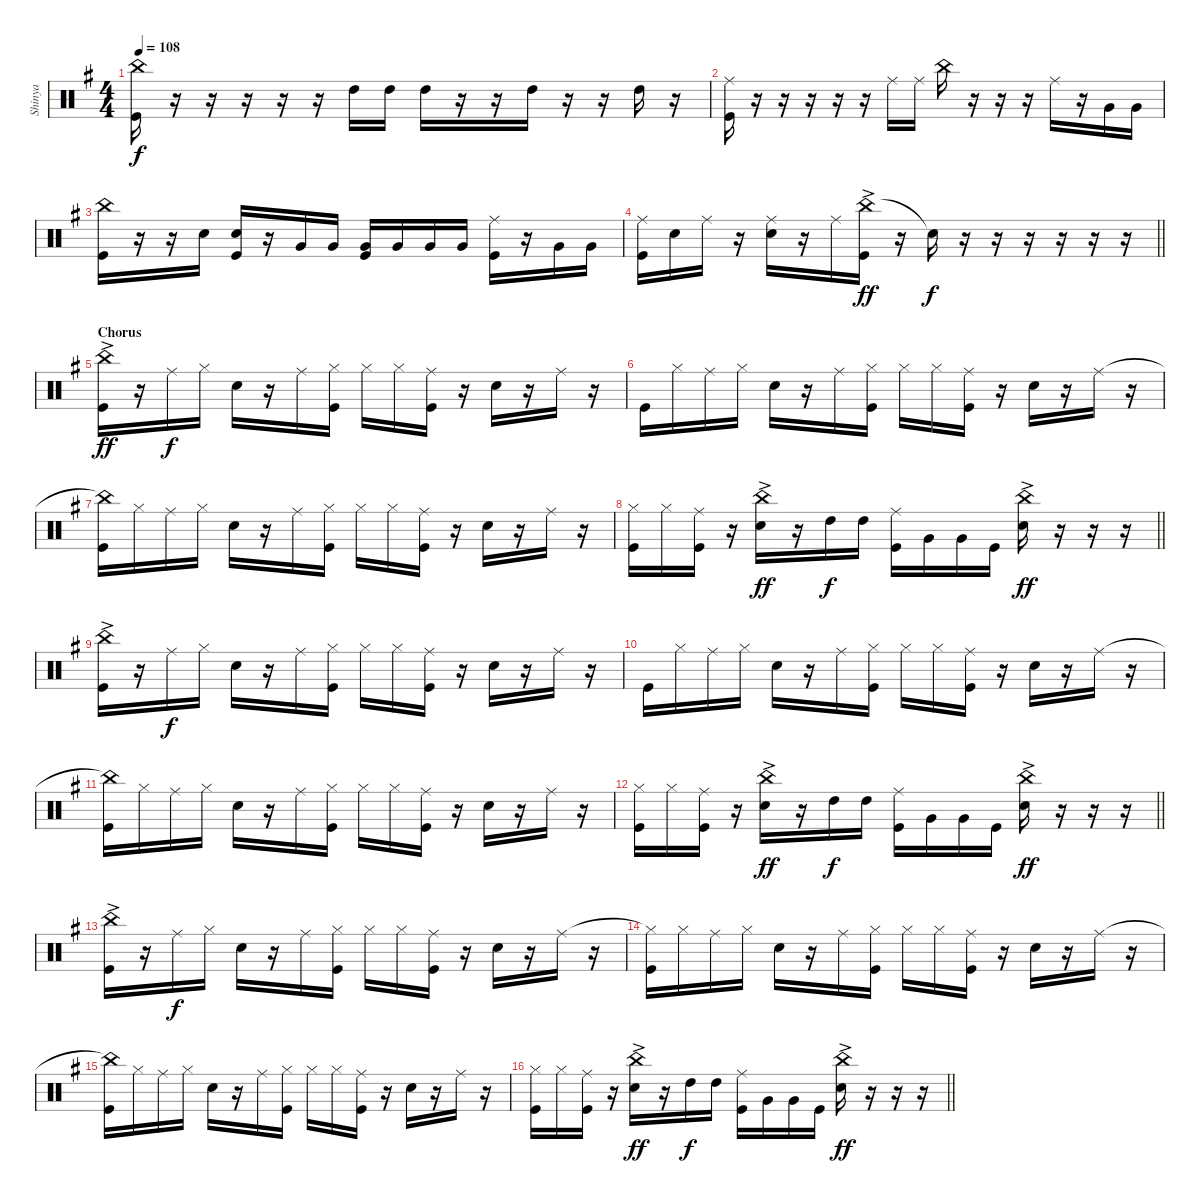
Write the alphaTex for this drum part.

\track ("Shinya" "Shinya") {instrument percussion}
\staff {score}
\articulation defaults
\ts (4 4)
\tempo 108
\clef neutral
\ks g
("China (hit)" "Kick (hit)").16{dy f} r.16 r.16 r.16 r.16 r.16 "High Tom (hit)".16 "High Tom (hit)".16 "High Tom (hit)".16 r.16 r.16 "High Tom (hit)".16 r.16 r.16 "High Tom (hit)".16 r.16 |
("Ride (middle)" "Kick (hit)").16 r.16 r.16 r.16 r.16 r.16 "Ride (middle)".16 "Ride (middle)".16 "China (hit)".16 r.16 r.16 r.16 "Ride (middle)".16 r.16 "Very Low Tom (hit)".16 "Very Low Tom (hit)".16 |
("China (hit)" "Kick (hit)").16 r.16 r.16 "Electric Snare (hit)".16 ("Electric Snare (hit)" "Kick (hit)").16 r.16 "Very Low Tom (hit)".16 "Very Low Tom (hit)".16 ("Very Low Tom (hit)" "Kick (hit)").16 "Very Low Tom (hit)".16 "Very Low Tom (hit)".16 "Very Low Tom (hit)".16 ("Ride (middle)" "Kick (hit)").16 r.16 "Very Low Tom (hit)".16 "Very Low Tom (hit)".16 |
\barLineRight lightlight
("Ride (middle)" "Kick (hit)").16 "Electric Snare (hit)".16 "Ride (middle)".16 r.16 ("Ride (middle)" "Electric Snare (hit)").16 r.16 "Ride (middle)".16 ("China (hit)"{ac} "Kick (hit)").16{dy ff} r.16 "Snare (hit)"{t}.16{dy f} r.16 r.16 r.16 r.16 r.16 r.16 |
\section ("" "Chorus")
("China (hit)"{ac} "Kick (hit)").16{dy ff} r.16 "Ride (middle)".16{dy f} "Hi-Hat (closed)".16 "Electric Snare (hit)".16 r.16 "Ride (middle)".16 ("Hi-Hat (closed)" "Kick (hit)").16 "Hi-Hat (closed)".16 "Hi-Hat (closed)".16 ("Ride (middle)" "Kick (hit)").16 r.16 "Electric Snare (hit)".16 r.16 "Ride (middle)".16 r.16 |
"Kick (hit)".16 "Hi-Hat (closed)".16 "Ride (middle)".16 "Hi-Hat (closed)".16 "Electric Snare (hit)".16 r.16 "Ride (middle)".16 ("Hi-Hat (closed)" "Kick (hit)").16 "Hi-Hat (closed)".16 "Hi-Hat (closed)".16 ("Ride (middle)" "Kick (hit)").16 r.16 "Electric Snare (hit)".16 r.16 "Ride (middle)".16 r.16 |
("China (hit)"{t} "Kick (hit)").16 "Hi-Hat (closed)".16 "Ride (middle)".16 "Hi-Hat (closed)".16 "Electric Snare (hit)".16 r.16 "Ride (middle)".16 ("Hi-Hat (closed)" "Kick (hit)").16 "Hi-Hat (closed)".16 "Hi-Hat (closed)".16 ("Ride (middle)" "Kick (hit)").16 r.16 "Electric Snare (hit)".16 r.16 "Ride (middle)".16 r.16 |
\barLineRight lightlight
("Hi-Hat (closed)" "Kick (hit)").16 "Hi-Hat (closed)".16 ("Ride (middle)" "Kick (hit)").16 r.16 ("China (hit)"{ac} "Electric Snare (hit)").16{dy ff} r.16 "High Tom (hit)".16{dy f} "High Tom (hit)".16 ("Ride (middle)" "Kick (hit)").16 "Very Low Tom (hit)".16 "Very Low Tom (hit)".16 "Kick (hit)".16 ("China (hit)"{ac} "Electric Snare (hit)").16{dy ff} r.16 r.16 r.16 |
("China (hit)"{ac} "Kick (hit)").16 r.16 "Ride (middle)".16{dy f} "Hi-Hat (closed)".16 "Electric Snare (hit)".16 r.16 "Ride (middle)".16 ("Hi-Hat (closed)" "Kick (hit)").16 "Hi-Hat (closed)".16 "Hi-Hat (closed)".16 ("Ride (middle)" "Kick (hit)").16 r.16 "Electric Snare (hit)".16 r.16 "Ride (middle)".16 r.16 |
"Kick (hit)".16 "Hi-Hat (closed)".16 "Ride (middle)".16 "Hi-Hat (closed)".16 "Electric Snare (hit)".16 r.16 "Ride (middle)".16 ("Hi-Hat (closed)" "Kick (hit)").16 "Hi-Hat (closed)".16 "Hi-Hat (closed)".16 ("Ride (middle)" "Kick (hit)").16 r.16 "Electric Snare (hit)".16 r.16 "Ride (middle)".16 r.16 |
("China (hit)"{t} "Kick (hit)").16 "Hi-Hat (closed)".16 "Ride (middle)".16 "Hi-Hat (closed)".16 "Electric Snare (hit)".16 r.16 "Ride (middle)".16 ("Hi-Hat (closed)" "Kick (hit)").16 "Hi-Hat (closed)".16 "Hi-Hat (closed)".16 ("Ride (middle)" "Kick (hit)").16 r.16 "Electric Snare (hit)".16 r.16 "Ride (middle)".16 r.16 |
\barLineRight lightlight
("Hi-Hat (closed)" "Kick (hit)").16 "Hi-Hat (closed)".16 ("Ride (middle)" "Kick (hit)").16 r.16 ("China (hit)"{ac} "Electric Snare (hit)").16{dy ff} r.16 "High Tom (hit)".16{dy f} "High Tom (hit)".16 ("Ride (middle)" "Kick (hit)").16 "Very Low Tom (hit)".16 "Very Low Tom (hit)".16 "Kick (hit)".16 ("China (hit)"{ac} "Electric Snare (hit)").16{dy ff} r.16 r.16 r.16 |
\section ("" "")
("China (hit)"{ac} "Kick (hit)").16 r.16 "Ride (middle)".16{dy f} "Hi-Hat (closed)".16 "Electric Snare (hit)".16 r.16 "Ride (middle)".16 ("Hi-Hat (closed)" "Kick (hit)").16 "Hi-Hat (closed)".16 "Hi-Hat (closed)".16 ("Ride (middle)" "Kick (hit)").16 r.16 "Electric Snare (hit)".16 r.16 "Ride (middle)".16 r.16 |
("Hi-Hat (closed)"{t} "Kick (hit)").16 "Hi-Hat (closed)".16 "Ride (middle)".16 "Hi-Hat (closed)".16 "Electric Snare (hit)".16 r.16 "Ride (middle)".16 ("Hi-Hat (closed)" "Kick (hit)").16 "Hi-Hat (closed)".16 "Hi-Hat (closed)".16 ("Ride (middle)" "Kick (hit)").16 r.16 "Electric Snare (hit)".16 r.16 "Ride (middle)".16 r.16 |
("China (hit)"{t} "Kick (hit)").16 "Hi-Hat (closed)".16 "Ride (middle)".16 "Hi-Hat (closed)".16 "Electric Snare (hit)".16 r.16 "Ride (middle)".16 ("Hi-Hat (closed)" "Kick (hit)").16 "Hi-Hat (closed)".16 "Hi-Hat (closed)".16 ("Ride (middle)" "Kick (hit)").16 r.16 "Electric Snare (hit)".16 r.16 "Ride (middle)".16 r.16 |
\barLineRight lightlight
("Hi-Hat (closed)" "Kick (hit)").16 "Hi-Hat (closed)".16 ("Ride (middle)" "Kick (hit)").16 r.16 ("China (hit)"{ac} "Electric Snare (hit)").16{dy ff} r.16 "High Tom (hit)".16{dy f} "High Tom (hit)".16 ("Ride (middle)" "Kick (hit)").16 "Very Low Tom (hit)".16 "Very Low Tom (hit)".16 "Kick (hit)".16 ("China (hit)"{ac} "Electric Snare (hit)").16{dy ff} r.16 r.16 r.16
